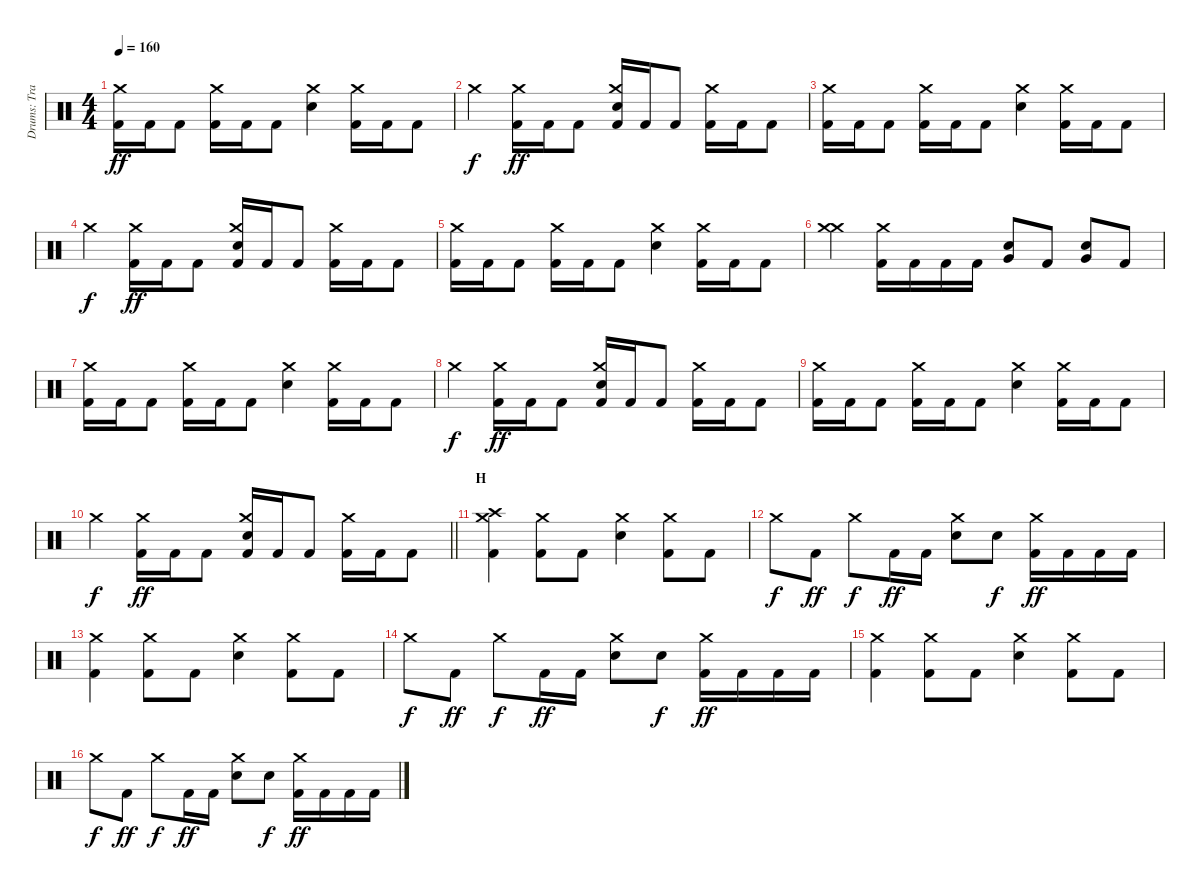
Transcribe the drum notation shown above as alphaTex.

\track ("Drums: Travis Clarke" "Drums: Tra") {instrument percussion}
\staff {score}
\articulation defaults
\ts (4 4)
\tempo 160
\clef neutral
\ks c
("Kick (hit) 2" "Crash medium (hit)").16{dy ff} "Kick (hit) 2".16 "Kick (hit) 2".8 ("Kick (hit) 2" "Crash medium (hit)").16 "Kick (hit) 2".16 "Kick (hit) 2".8 ("Snare (hit) 2" "Crash medium (hit)").4 ("Kick (hit) 2" "Crash medium (hit)").16 "Kick (hit) 2".16 "Kick (hit) 2".8 |
"Crash medium (hit)".4{dy f} ("Kick (hit) 2" "Crash medium (hit)").16{dy ff} "Kick (hit) 2".16 "Kick (hit) 2".8 ("Kick (hit) 2" "Snare (hit) 2" "Crash medium (hit)").16 "Kick (hit) 2".16 "Kick (hit) 2".8 ("Kick (hit) 2" "Crash medium (hit)").16 "Kick (hit) 2".16 "Kick (hit) 2".8 |
("Kick (hit) 2" "Crash medium (hit)").16 "Kick (hit) 2".16 "Kick (hit) 2".8 ("Kick (hit) 2" "Crash medium (hit)").16 "Kick (hit) 2".16 "Kick (hit) 2".8 ("Snare (hit) 2" "Crash medium (hit)").4 ("Kick (hit) 2" "Crash medium (hit)").16 "Kick (hit) 2".16 "Kick (hit) 2".8 |
"Crash medium (hit)".4{dy f} ("Kick (hit) 2" "Crash medium (hit)").16{dy ff} "Kick (hit) 2".16 "Kick (hit) 2".8 ("Kick (hit) 2" "Snare (hit) 2" "Crash medium (hit)").16 "Kick (hit) 2".16 "Kick (hit) 2".8 ("Kick (hit) 2" "Crash medium (hit)").16 "Kick (hit) 2".16 "Kick (hit) 2".8 |
("Kick (hit) 2" "Crash medium (hit)").16 "Kick (hit) 2".16 "Kick (hit) 2".8 ("Kick (hit) 2" "Crash medium (hit)").16 "Kick (hit) 2".16 "Kick (hit) 2".8 ("Snare (hit) 2" "Crash medium (hit)").4 ("Kick (hit) 2" "Crash medium (hit)").16 "Kick (hit) 2".16 "Kick (hit) 2".8 |
("Crash medium (hit)" "Crash medium (hit)").4 ("Kick (hit) 2" "Crash medium (hit)").16 "Kick (hit) 2".16 "Kick (hit) 2".16 "Kick (hit) 2".16 ("Snare (hit) 2" "Very Low Tom (hit)").8 "Kick (hit) 2".8 ("Snare (hit) 2" "Very Low Tom (hit)").8 "Kick (hit) 2".8 |
("Kick (hit) 2" "Crash medium (hit)").16 "Kick (hit) 2".16 "Kick (hit) 2".8 ("Kick (hit) 2" "Crash medium (hit)").16 "Kick (hit) 2".16 "Kick (hit) 2".8 ("Snare (hit) 2" "Crash medium (hit)").4 ("Kick (hit) 2" "Crash medium (hit)").16 "Kick (hit) 2".16 "Kick (hit) 2".8 |
"Crash medium (hit)".4{dy f} ("Kick (hit) 2" "Crash medium (hit)").16{dy ff} "Kick (hit) 2".16 "Kick (hit) 2".8 ("Kick (hit) 2" "Snare (hit) 2" "Crash medium (hit)").16 "Kick (hit) 2".16 "Kick (hit) 2".8 ("Kick (hit) 2" "Crash medium (hit)").16 "Kick (hit) 2".16 "Kick (hit) 2".8 |
("Kick (hit) 2" "Crash medium (hit)").16 "Kick (hit) 2".16 "Kick (hit) 2".8 ("Kick (hit) 2" "Crash medium (hit)").16 "Kick (hit) 2".16 "Kick (hit) 2".8 ("Snare (hit) 2" "Crash medium (hit)").4 ("Kick (hit) 2" "Crash medium (hit)").16 "Kick (hit) 2".16 "Kick (hit) 2".8 |
\barLineRight lightlight "Crash medium (hit)".4{dy f}
("Kick (hit) 2" "Crash medium (hit)").16{dy ff} "Kick (hit) 2".16 "Kick (hit) 2".8 ("Kick (hit) 2" "Snare (hit) 2" "Crash medium (hit)").16 "Kick (hit) 2".16 "Kick (hit) 2".8 ("Kick (hit) 2" "Crash medium (hit)").16 "Kick (hit) 2".16 "Kick (hit) 2".8 |
\section ("" "H")
("Kick (hit) 2" "Crash high (hit)" "Crash medium (hit)").4 ("Kick (hit) 2" "Crash medium (hit)").8 "Kick (hit) 2".8 ("Snare (hit) 2" "Crash medium (hit)").4 ("Kick (hit) 2" "Crash medium (hit)").8 "Kick (hit) 2".8 |
"Crash medium (hit)".8{dy f} "Kick (hit) 2".8{dy ff} "Crash medium (hit)".8{dy f} "Kick (hit) 2".16{dy ff} "Kick (hit) 2".16 ("Snare (hit) 2" "Crash medium (hit)").8 "Snare (hit) 2".8{dy f} ("Kick (hit) 2" "Crash medium (hit)").16{dy ff} "Kick (hit) 2".16 "Kick (hit) 2".16 "Kick (hit) 2".16 |
("Kick (hit) 2" "Crash medium (hit)").4 ("Kick (hit) 2" "Crash medium (hit)").8 "Kick (hit) 2".8 ("Snare (hit) 2" "Crash medium (hit)").4 ("Kick (hit) 2" "Crash medium (hit)").8 "Kick (hit) 2".8 |
"Crash medium (hit)".8{dy f} "Kick (hit) 2".8{dy ff} "Crash medium (hit)".8{dy f} "Kick (hit) 2".16{dy ff} "Kick (hit) 2".16 ("Snare (hit) 2" "Crash medium (hit)").8 "Snare (hit) 2".8{dy f} ("Kick (hit) 2" "Crash medium (hit)").16{dy ff} "Kick (hit) 2".16 "Kick (hit) 2".16 "Kick (hit) 2".16 |
("Kick (hit) 2" "Crash medium (hit)").4 ("Kick (hit) 2" "Crash medium (hit)").8 "Kick (hit) 2".8 ("Snare (hit) 2" "Crash medium (hit)").4 ("Kick (hit) 2" "Crash medium (hit)").8 "Kick (hit) 2".8 |
"Crash medium (hit)".8{dy f} "Kick (hit) 2".8{dy ff} "Crash medium (hit)".8{dy f} "Kick (hit) 2".16{dy ff} "Kick (hit) 2".16 ("Snare (hit) 2" "Crash medium (hit)").8 "Snare (hit) 2".8{dy f} ("Kick (hit) 2" "Crash medium (hit)").16{dy ff} "Kick (hit) 2".16 "Kick (hit) 2".16 "Kick (hit) 2".16
